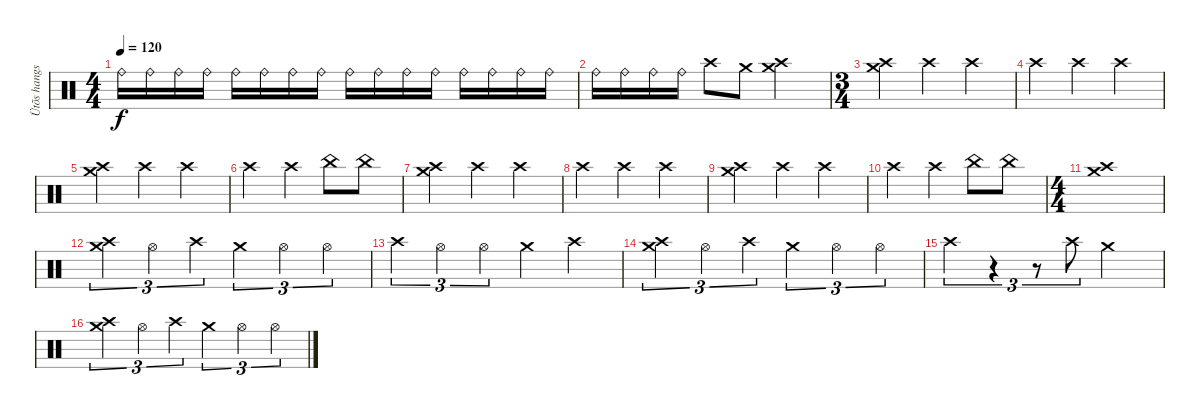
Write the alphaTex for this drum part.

\track ("Ütõs hangszer" "Ütõs hangs") {instrument percussion}
\staff {score}
\articulation defaults
\ts (4 4)
\tempo 120
\clef neutral
\ks c "Ride (bell)".16{dy f} "Ride (bell)".16 "Ride (bell)".16 "Ride (bell)".16 "Ride (bell)".16 "Ride (bell)".16 "Ride (bell)".16 "Ride (bell)".16 "Ride (bell)".16 "Ride (bell)".16 "Ride (bell)".16 "Ride (bell)".16 "Ride (bell)".16 "Ride (bell)".16 "Ride (bell)".16 "Ride (bell)".16
|
"Ride (bell)".16 "Ride (bell)".16 "Ride (bell)".16 "Ride (bell)".16 "Crash high (hit)".8 "Crash medium (hit)".8 ("Crash medium (hit)" "Crash high (hit)").2 |
\ts (3 4)
("Crash medium (hit)" "Crash high (hit)").4 "Crash high (hit)".4 "Crash high (hit)".4 |
"Crash high (hit)".4 "Crash high (hit)".4 "Crash high (hit)".4 |
("Crash medium (hit)" "Crash high (hit)").4 "Crash high (hit)".4 "Crash high (hit)".4 |
"Crash high (hit)".4 "Crash high (hit)".4 "China (hit)".8 "China (hit)".8 |
("Crash medium (hit)" "Crash high (hit)").4 "Crash high (hit)".4 "Crash high (hit)".4 |
"Crash high (hit)".4 "Crash high (hit)".4 "Crash high (hit)".4 |
("Crash medium (hit)" "Crash high (hit)").4 "Crash high (hit)".4 "Crash high (hit)".4 |
"Crash high (hit)".4 "Crash high (hit)".4 "China (hit)".8 "China (hit)".8 |
\ts (4 4)
("Crash medium (hit)" "Crash high (hit)").1 |
("Crash medium (hit)" "Crash high (hit)").4{tu (3 2)} "Hi-Hat (open)".4{tu (3 2)} "Crash high (hit)".4{tu (3 2)} "Crash medium (hit)".4{tu (3 2)} "Hi-Hat (open)".4{tu (3 2)} "Hi-Hat (open)".4{tu (3 2)} |
"Crash high (hit)".4{tu (3 2)} "Hi-Hat (open)".4{tu (3 2)} "Hi-Hat (open)".4{tu (3 2)} "Crash medium (hit)".4 "Crash high (hit)".4 |
("Crash medium (hit)" "Crash high (hit)").4{tu (3 2)} "Hi-Hat (open)".4{tu (3 2)} "Crash high (hit)".4{tu (3 2)} "Crash medium (hit)".4{tu (3 2)} "Hi-Hat (open)".4{tu (3 2)} "Hi-Hat (open)".4{tu (3 2)} |
"Crash high (hit)".4{tu (3 2)} r.4{tu (3 2)} r.8{tu (3 2)} "Crash high (hit)".8{tu (3 2)} "Crash medium (hit)".2 |
("Crash medium (hit)" "Crash high (hit)").4{tu (3 2)} "Hi-Hat (open)".4{tu (3 2)} "Crash high (hit)".4{tu (3 2)} "Crash medium (hit)".4{tu (3 2)} "Hi-Hat (open)".4{tu (3 2)} "Hi-Hat (open)".4{tu (3 2)}
